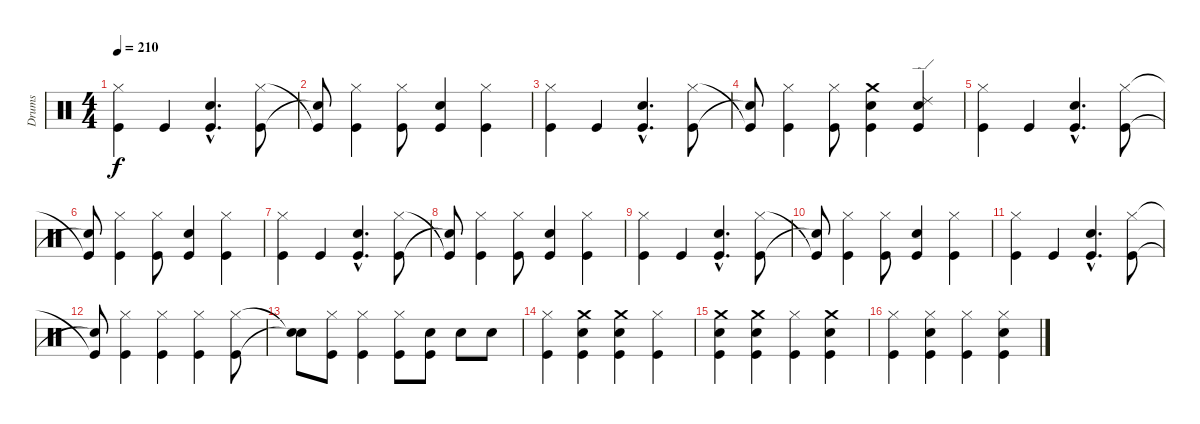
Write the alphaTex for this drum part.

\track ("Drums" "Drums") {instrument percussion}
\staff {score}
\articulation defaults
\ts (4 4)
\tempo 210
\clef neutral
\ks c
("Hi-Hat (closed)" "Kick (hit)").4{dy f} "Kick (hit)".4 ("Snare (hit) 2"{hac} "Kick (hit)"{hac}).4{d} ("Hi-Hat (closed)" "Kick (hit)").8 |
("Kick (hit)"{t} "Snare (hit)"{t}).8 ("Hi-Hat (closed)" "Kick (hit)").4 ("Hi-Hat (closed)" "Kick (hit)").8 ("Snare (hit) 2" "Kick (hit)").4 ("Hi-Hat (closed)" "Kick (hit)").4 |
("Hi-Hat (closed)" "Kick (hit)").4 "Kick (hit)".4 ("Snare (hit) 2"{hac} "Kick (hit)"{hac}).4{d} ("Hi-Hat (closed)" "Kick (hit)").8 |
("Kick (hit)"{t} "Snare (hit)"{t}).8 ("Hi-Hat (closed)" "Kick (hit)").4 ("Hi-Hat (closed)" "Kick (hit)").8 ("Crash medium (hit)" "Snare (hit) 2" "Kick (hit)").4 ("Ride (edge) 2" "Snare (hit) 2" "Kick (hit)").4 |
("Hi-Hat (closed)" "Kick (hit)").4 "Kick (hit)".4 ("Snare (hit) 2"{hac} "Kick (hit)"{hac}).4{d} ("Hi-Hat (closed)" "Kick (hit)").8 |
("Kick (hit)"{t} "Snare (hit)"{t}).8 ("Hi-Hat (closed)" "Kick (hit)").4 ("Hi-Hat (closed)" "Kick (hit)").8 ("Snare (hit) 2" "Kick (hit)").4 ("Hi-Hat (closed)" "Kick (hit)").4 |
("Hi-Hat (closed)" "Kick (hit)").4 "Kick (hit)".4 ("Snare (hit) 2"{hac} "Kick (hit)"{hac}).4{d} ("Hi-Hat (closed)" "Kick (hit)").8 |
("Kick (hit)"{t} "Snare (hit)"{t}).8 ("Hi-Hat (closed)" "Kick (hit)").4 ("Hi-Hat (closed)" "Kick (hit)").8 ("Snare (hit) 2" "Kick (hit)").4 ("Hi-Hat (closed)" "Kick (hit)").4 |
("Hi-Hat (closed)" "Kick (hit)").4 "Kick (hit)".4 ("Snare (hit) 2"{hac} "Kick (hit)"{hac}).4{d} ("Hi-Hat (closed)" "Kick (hit)").8 |
("Kick (hit)"{t} "Snare (hit)"{t}).8 ("Hi-Hat (closed)" "Kick (hit)").4 ("Hi-Hat (closed)" "Kick (hit)").8 ("Snare (hit) 2" "Kick (hit)").4 ("Hi-Hat (closed)" "Kick (hit)").4 |
("Hi-Hat (closed)" "Kick (hit)").4 "Kick (hit)".4 ("Snare (hit) 2"{hac} "Kick (hit)"{hac}).4{d} ("Hi-Hat (closed)" "Kick (hit)").8 |
("Kick (hit)"{t} "Snare (hit)"{t}).8 ("Hi-Hat (closed)" "Kick (hit)").4 ("Hi-Hat (closed)" "Kick (hit)").4 ("Hi-Hat (closed)" "Kick (hit)").4 ("Hi-Hat (closed)" "Kick (hit)").8 |
("Snare (hit)"{t} "Snare (hit)"{t}).8 ("Hi-Hat (closed)" "Kick (hit)").8 ("Hi-Hat (closed)" "Kick (hit)").4 ("Hi-Hat (closed)" "Kick (hit)").8 ("Snare (hit) 2" "Kick (hit)").8 "Snare (hit) 2".8 "Snare (hit) 2".8 |
("Hi-Hat (closed)" "Kick (hit)").4 ("Crash medium (hit)" "Snare (hit) 2" "Kick (hit)").4 ("Crash medium (hit)" "Snare (hit) 2" "Kick (hit)").4 ("Hi-Hat (closed)" "Kick (hit)").4 |
("Crash medium (hit)" "Snare (hit) 2" "Kick (hit)").4 ("Crash medium (hit)" "Snare (hit) 2" "Kick (hit)").4 ("Hi-Hat (closed)" "Kick (hit)").4 ("Crash medium (hit)" "Snare (hit) 2" "Kick (hit)").4 |
("Hi-Hat (closed)" "Kick (hit)").4 ("Hi-Hat (closed)" "Snare (hit) 2" "Kick (hit)").4 ("Hi-Hat (closed)" "Kick (hit)").4 ("Hi-Hat (closed)" "Snare (hit) 2" "Kick (hit)").4
